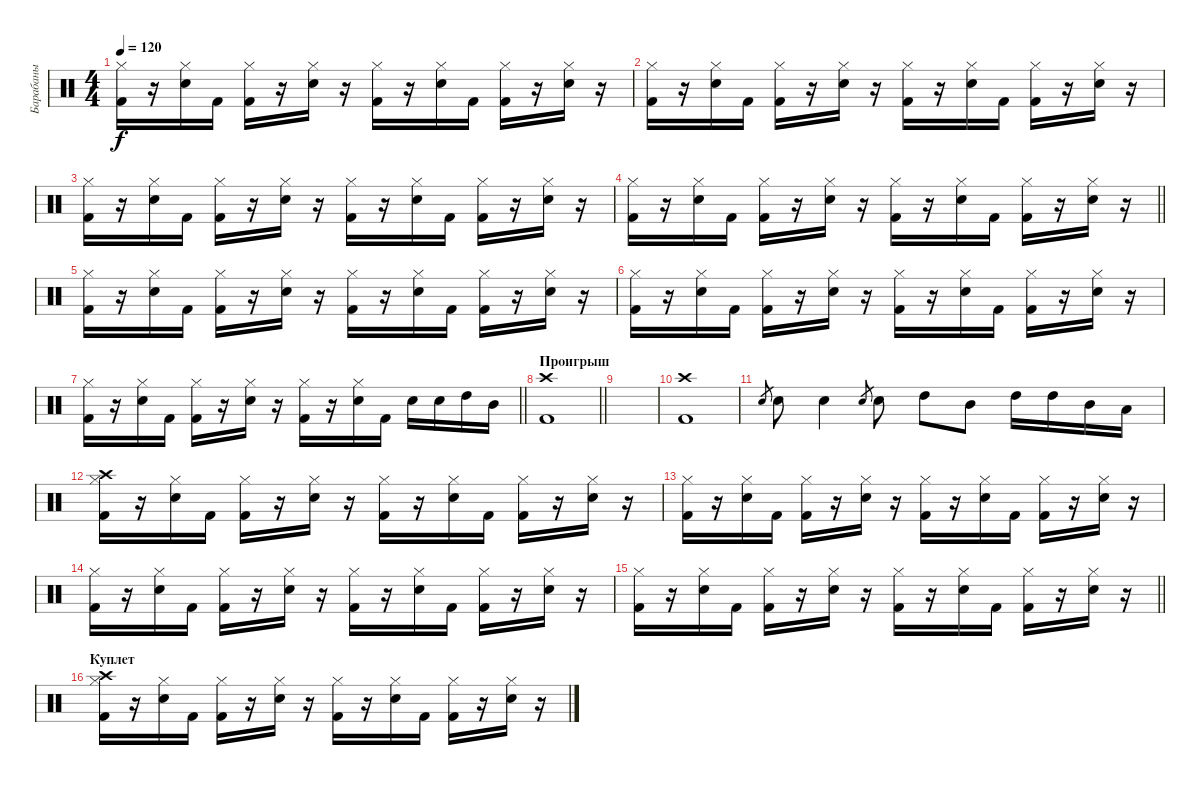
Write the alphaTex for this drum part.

\track ("Барабаны" "Барабаны") {instrument percussion}
\staff {score}
\articulation defaults
\ts (4 4)
\tempo 120
\clef neutral
\ks c
("Hi-Hat (closed)" "Kick (hit) 2").16{dy f} r.16 ("Hi-Hat (closed)" "Electric Snare (hit)").16 "Kick (hit) 2".16 ("Hi-Hat (closed)" "Kick (hit) 2").16 r.16 ("Hi-Hat (closed)" "Electric Snare (hit)").16 r.16 ("Hi-Hat (closed)" "Kick (hit) 2").16 r.16 ("Hi-Hat (closed)" "Electric Snare (hit)").16 "Kick (hit) 2".16 ("Hi-Hat (closed)" "Kick (hit) 2").16 r.16 ("Hi-Hat (closed)" "Electric Snare (hit)").16 r.16 |
("Hi-Hat (closed)" "Kick (hit) 2").16 r.16 ("Hi-Hat (closed)" "Electric Snare (hit)").16 "Kick (hit) 2".16 ("Hi-Hat (closed)" "Kick (hit) 2").16 r.16 ("Hi-Hat (closed)" "Electric Snare (hit)").16 r.16 ("Hi-Hat (closed)" "Kick (hit) 2").16 r.16 ("Hi-Hat (closed)" "Electric Snare (hit)").16 "Kick (hit) 2".16 ("Hi-Hat (closed)" "Kick (hit) 2").16 r.16 ("Hi-Hat (closed)" "Electric Snare (hit)").16 r.16 |
("Hi-Hat (closed)" "Kick (hit) 2").16 r.16 ("Hi-Hat (closed)" "Electric Snare (hit)").16 "Kick (hit) 2".16 ("Hi-Hat (closed)" "Kick (hit) 2").16 r.16 ("Hi-Hat (closed)" "Electric Snare (hit)").16 r.16 ("Hi-Hat (closed)" "Kick (hit) 2").16 r.16 ("Hi-Hat (closed)" "Electric Snare (hit)").16 "Kick (hit) 2".16 ("Hi-Hat (closed)" "Kick (hit) 2").16 r.16 ("Hi-Hat (closed)" "Electric Snare (hit)").16 r.16 |
\barLineRight lightlight
("Hi-Hat (closed)" "Kick (hit) 2").16 r.16 ("Hi-Hat (closed)" "Electric Snare (hit)").16 "Kick (hit) 2".16 ("Hi-Hat (closed)" "Kick (hit) 2").16 r.16 ("Hi-Hat (closed)" "Electric Snare (hit)").16 r.16 ("Hi-Hat (closed)" "Kick (hit) 2").16 r.16 ("Hi-Hat (closed)" "Electric Snare (hit)").16 "Kick (hit) 2".16 ("Hi-Hat (closed)" "Kick (hit) 2").16 r.16 ("Hi-Hat (closed)" "Electric Snare (hit)").16 r.16 |
("Hi-Hat (closed)" "Kick (hit) 2").16 r.16 ("Hi-Hat (closed)" "Electric Snare (hit)").16 "Kick (hit) 2".16 ("Hi-Hat (closed)" "Kick (hit) 2").16 r.16 ("Hi-Hat (closed)" "Electric Snare (hit)").16 r.16 ("Hi-Hat (closed)" "Kick (hit) 2").16 r.16 ("Hi-Hat (closed)" "Electric Snare (hit)").16 "Kick (hit) 2".16 ("Hi-Hat (closed)" "Kick (hit) 2").16 r.16 ("Hi-Hat (closed)" "Electric Snare (hit)").16 r.16 |
("Hi-Hat (closed)" "Kick (hit) 2").16 r.16 ("Hi-Hat (closed)" "Electric Snare (hit)").16 "Kick (hit) 2".16 ("Hi-Hat (closed)" "Kick (hit) 2").16 r.16 ("Hi-Hat (closed)" "Electric Snare (hit)").16 r.16 ("Hi-Hat (closed)" "Kick (hit) 2").16 r.16 ("Hi-Hat (closed)" "Electric Snare (hit)").16 "Kick (hit) 2".16 ("Hi-Hat (closed)" "Kick (hit) 2").16 r.16 ("Hi-Hat (closed)" "Electric Snare (hit)").16 r.16 |
\barLineRight lightlight
("Hi-Hat (closed)" "Kick (hit) 2").16 r.16 ("Hi-Hat (closed)" "Electric Snare (hit)").16 "Kick (hit) 2".16 ("Hi-Hat (closed)" "Kick (hit) 2").16 r.16 ("Hi-Hat (closed)" "Electric Snare (hit)").16 r.16 ("Hi-Hat (closed)" "Kick (hit) 2").16 r.16 ("Hi-Hat (closed)" "Electric Snare (hit)").16 "Kick (hit) 2".16 "Electric Snare (hit)".16 "Electric Snare (hit)".16 "High Tom (hit)".16 "Mid Tom (hit)".16 |
\section ("" "Проигрыш")
\barLineRight lightlight
("Crash high (hit)" "Kick (hit) 2").1 |
|
("Crash high (hit)" "Kick (hit) 2").1 |
"Electric Snare (hit)".8{gr} "Electric Snare (hit)".8 "Electric Snare (hit)".4 "Electric Snare (hit)".8{gr} "Electric Snare (hit)".8 "High Tom (hit)".8 "Mid Tom (hit)".8 "High Tom (hit)".16 "High Tom (hit)".16 "Mid Tom (hit)".16 "Low Tom (hit)".16 |
("Hi-Hat (closed)" "Kick (hit) 2" "Crash high (hit)").16 r.16 ("Hi-Hat (closed)" "Electric Snare (hit)").16 "Kick (hit) 2".16 ("Hi-Hat (closed)" "Kick (hit) 2").16 r.16 ("Hi-Hat (closed)" "Electric Snare (hit)").16 r.16 ("Hi-Hat (closed)" "Kick (hit) 2").16 r.16 ("Hi-Hat (closed)" "Electric Snare (hit)").16 "Kick (hit) 2".16 ("Hi-Hat (closed)" "Kick (hit) 2").16 r.16 ("Hi-Hat (closed)" "Electric Snare (hit)").16 r.16 |
("Hi-Hat (closed)" "Kick (hit) 2").16 r.16 ("Hi-Hat (closed)" "Electric Snare (hit)").16 "Kick (hit) 2".16 ("Hi-Hat (closed)" "Kick (hit) 2").16 r.16 ("Hi-Hat (closed)" "Electric Snare (hit)").16 r.16 ("Hi-Hat (closed)" "Kick (hit) 2").16 r.16 ("Hi-Hat (closed)" "Electric Snare (hit)").16 "Kick (hit) 2".16 ("Hi-Hat (closed)" "Kick (hit) 2").16 r.16 ("Hi-Hat (closed)" "Electric Snare (hit)").16 r.16 |
("Hi-Hat (closed)" "Kick (hit) 2").16 r.16 ("Hi-Hat (closed)" "Electric Snare (hit)").16 "Kick (hit) 2".16 ("Hi-Hat (closed)" "Kick (hit) 2").16 r.16 ("Hi-Hat (closed)" "Electric Snare (hit)").16 r.16 ("Hi-Hat (closed)" "Kick (hit) 2").16 r.16 ("Hi-Hat (closed)" "Electric Snare (hit)").16 "Kick (hit) 2".16 ("Hi-Hat (closed)" "Kick (hit) 2").16 r.16 ("Hi-Hat (closed)" "Electric Snare (hit)").16 r.16 |
\barLineRight lightlight
("Hi-Hat (closed)" "Kick (hit) 2").16 r.16 ("Hi-Hat (closed)" "Electric Snare (hit)").16 "Kick (hit) 2".16 ("Hi-Hat (closed)" "Kick (hit) 2").16 r.16 ("Hi-Hat (closed)" "Electric Snare (hit)").16 r.16 ("Hi-Hat (closed)" "Kick (hit) 2").16 r.16 ("Hi-Hat (closed)" "Electric Snare (hit)").16 "Kick (hit) 2".16 ("Hi-Hat (closed)" "Kick (hit) 2").16 r.16 ("Hi-Hat (closed)" "Electric Snare (hit)").16 r.16 |
\section ("" "Куплет")
("Hi-Hat (closed)" "Kick (hit) 2" "Crash high (hit)").16 r.16 ("Hi-Hat (closed)" "Electric Snare (hit)").16 "Kick (hit) 2".16 ("Hi-Hat (closed)" "Kick (hit) 2").16 r.16 ("Hi-Hat (closed)" "Electric Snare (hit)").16 r.16 ("Hi-Hat (closed)" "Kick (hit) 2").16 r.16 ("Hi-Hat (closed)" "Electric Snare (hit)").16 "Kick (hit) 2".16 ("Hi-Hat (closed)" "Kick (hit) 2").16 r.16 ("Hi-Hat (closed)" "Electric Snare (hit)").16 r.16
